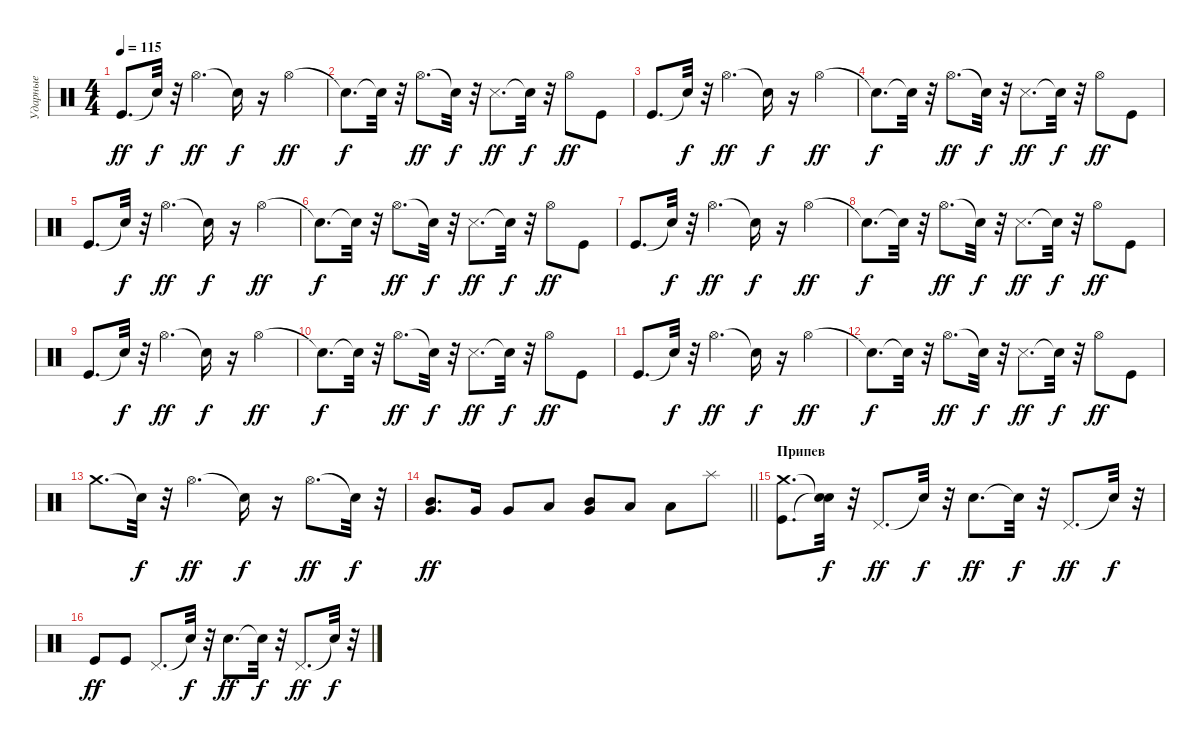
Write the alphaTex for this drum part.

\track ("Ударные" "Ударные") {instrument percussion}
\staff {score}
\articulation defaults
\ts (4 4)
\tempo 115
\clef neutral
\ks c "Kick (hit)".8{d dy ff} "Snare (hit)"{t}.32{dy f}
r.32 "Hi-Hat (open)".4{d dy ff} "Snare (hit)"{t}.16{dy f} r.16 "Hi-Hat (open)".4{dy ff} |
"Snare (hit)"{t}.8{d dy f} "Snare (hit)"{t}.32 r.32 "Hi-Hat (open)".8{d dy ff} "Snare (hit)"{t}.32{dy f} r.32 "Snare (side stick) 3".8{d dy ff} "Snare (hit)"{t}.32{dy f} r.32 "Hi-Hat (open)".8{dy ff} "Kick (hit)".8 |
"Kick (hit)".8{d} "Snare (hit)"{t}.32{dy f} r.32 "Hi-Hat (open)".4{d dy ff} "Snare (hit)"{t}.16{dy f} r.16 "Hi-Hat (open)".4{dy ff} |
"Snare (hit)"{t}.8{d dy f} "Snare (hit)"{t}.32 r.32 "Hi-Hat (open)".8{d dy ff} "Snare (hit)"{t}.32{dy f} r.32 "Snare (side stick) 3".8{d dy ff} "Snare (hit)"{t}.32{dy f} r.32 "Hi-Hat (open)".8{dy ff} "Kick (hit)".8 |
"Kick (hit)".8{d} "Snare (hit)"{t}.32{dy f} r.32 "Hi-Hat (open)".4{d dy ff} "Snare (hit)"{t}.16{dy f} r.16 "Hi-Hat (open)".4{dy ff} |
"Snare (hit)"{t}.8{d dy f} "Snare (hit)"{t}.32 r.32 "Hi-Hat (open)".8{d dy ff} "Snare (hit)"{t}.32{dy f} r.32 "Snare (side stick) 3".8{d dy ff} "Snare (hit)"{t}.32{dy f} r.32 "Hi-Hat (open)".8{dy ff} "Kick (hit)".8 |
"Kick (hit)".8{d} "Snare (hit)"{t}.32{dy f} r.32 "Hi-Hat (open)".4{d dy ff} "Snare (hit)"{t}.16{dy f} r.16 "Hi-Hat (open)".4{dy ff} |
"Snare (hit)"{t}.8{d dy f} "Snare (hit)"{t}.32 r.32 "Hi-Hat (open)".8{d dy ff} "Snare (hit)"{t}.32{dy f} r.32 "Snare (side stick) 3".8{d dy ff} "Snare (hit)"{t}.32{dy f} r.32 "Hi-Hat (open)".8{dy ff} "Kick (hit)".8 |
"Kick (hit)".8{d} "Snare (hit)"{t}.32{dy f} r.32 "Hi-Hat (open)".4{d dy ff} "Snare (hit)"{t}.16{dy f} r.16 "Hi-Hat (open)".4{dy ff} |
"Snare (hit)"{t}.8{d dy f} "Snare (hit)"{t}.32 r.32 "Hi-Hat (open)".8{d dy ff} "Snare (hit)"{t}.32{dy f} r.32 "Snare (side stick) 3".8{d dy ff} "Snare (hit)"{t}.32{dy f} r.32 "Hi-Hat (open)".8{dy ff} "Kick (hit)".8 |
"Kick (hit)".8{d} "Snare (hit)"{t}.32{dy f} r.32 "Hi-Hat (open)".4{d dy ff} "Snare (hit)"{t}.16{dy f} r.16 "Hi-Hat (open)".4{dy ff} |
"Snare (hit)"{t}.8{d dy f} "Snare (hit)"{t}.32 r.32 "Hi-Hat (open)".8{d dy ff} "Snare (hit)"{t}.32{dy f} r.32 "Snare (side stick) 3".8{d dy ff} "Snare (hit)"{t}.32{dy f} r.32 "Hi-Hat (open)".8{dy ff} "Kick (hit)".8 |
"Crash medium (hit)".8{d} "Snare (hit)"{t}.32{dy f} r.32 "Hi-Hat (open)".4{d dy ff} "Snare (hit)"{t}.16{dy f} r.16 "Hi-Hat (open)".8{d dy ff} "Snare (hit)"{t}.32{dy f} r.32 |
\barLineRight lightlight
("Very Low Tom (hit)" "Mid Tom (hit)").8{d dy ff} "Very Low Tom (hit)".16 "Very Low Tom (hit)".8 "Low Floor Tom (hit)".8 ("Very Low Tom (hit)" "Mid Tom (hit)").8 "Low Floor Tom (hit)".8 "Low Floor Tom (hit)".8 "Splash (hit)".8 |
\section ("" "Припев")
("Kick (hit)" "Crash medium (hit)").8{d} ("Snare (hit)"{t} "Snare (hit)"{t}).32{dy f} r.32 "Pedal Hi-Hat (hit)".8{d dy ff} "Snare (hit)"{t}.32{dy f} r.32 "Electric Snare (hit)".8{d dy ff} "Snare (hit)"{t}.32{dy f} r.32 "Pedal Hi-Hat (hit)".8{d dy ff} "Snare (hit)"{t}.32{dy f} r.32 |
"Kick (hit)".8{dy ff} "Kick (hit)".8 "Pedal Hi-Hat (hit)".8{d} "Snare (hit)"{t}.32{dy f} r.32 "Electric Snare (hit)".8{d dy ff} "Snare (hit)"{t}.32{dy f} r.32 "Pedal Hi-Hat (hit)".8{d dy ff} "Snare (hit)"{t}.32{dy f} r.32
